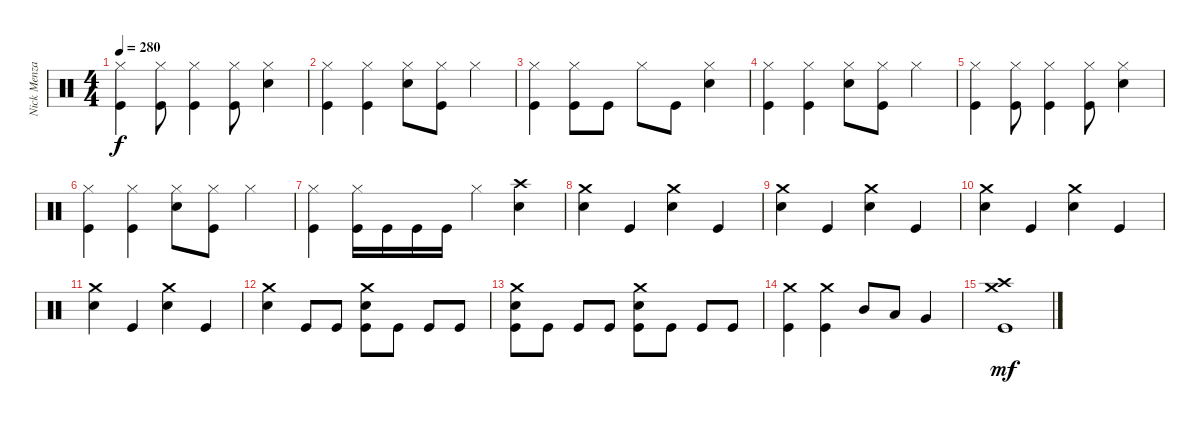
\track ("Nick Menza" "Nick Menza") {instrument percussion}
\staff {score}
\articulation defaults
\ts (4 4)
\tempo 280
\clef neutral
\ks c
("Hi-Hat (closed)" "Kick (hit)").4{dy f} ("Hi-Hat (closed)" "Kick (hit)").8 ("Hi-Hat (closed)" "Kick (hit)").4 ("Hi-Hat (closed)" "Kick (hit)").8 ("Hi-Hat (closed)" "Snare (hit) 2").4 |
("Hi-Hat (closed)" "Kick (hit)").4 ("Hi-Hat (closed)" "Kick (hit)").4 ("Hi-Hat (closed)" "Snare (hit) 2").8 ("Hi-Hat (closed)" "Kick (hit)").8 "Hi-Hat (closed)".4 |
("Hi-Hat (closed)" "Kick (hit)").4 ("Hi-Hat (closed)" "Kick (hit)").8 "Kick (hit)".8 "Hi-Hat (closed)".8 "Kick (hit)".8 ("Hi-Hat (closed)" "Snare (hit) 2").4 |
("Hi-Hat (closed)" "Kick (hit)").4 ("Hi-Hat (closed)" "Kick (hit)").4 ("Hi-Hat (closed)" "Snare (hit) 2").8 ("Hi-Hat (closed)" "Kick (hit)").8 "Hi-Hat (closed)".4 |
("Hi-Hat (closed)" "Kick (hit)").4 ("Hi-Hat (closed)" "Kick (hit)").8 ("Hi-Hat (closed)" "Kick (hit)").4 ("Hi-Hat (closed)" "Kick (hit)").8 ("Hi-Hat (closed)" "Snare (hit) 2").4 |
("Hi-Hat (closed)" "Kick (hit)").4 ("Hi-Hat (closed)" "Kick (hit)").4 ("Hi-Hat (closed)" "Snare (hit) 2").8 ("Hi-Hat (closed)" "Kick (hit)").8 "Hi-Hat (closed)".4 |
("Hi-Hat (closed)" "Kick (hit)").4 ("Hi-Hat (closed)" "Kick (hit)").16 "Kick (hit)".16 "Kick (hit)".16 "Kick (hit)".16 "Hi-Hat (closed)".4 ("Crash high (hit)" "Snare (hit) 2").4 |
("Crash medium (hit)" "Snare (hit) 2").4 "Kick (hit)".4 ("Crash medium (hit)" "Snare (hit) 2").4 "Kick (hit)".4 |
("Crash medium (hit)" "Snare (hit) 2").4 "Kick (hit)".4 ("Crash medium (hit)" "Snare (hit) 2").4 "Kick (hit)".4 |
("Crash medium (hit)" "Snare (hit) 2").4 "Kick (hit)".4 ("Crash medium (hit)" "Snare (hit) 2").4 "Kick (hit)".4 |
("Crash medium (hit)" "Snare (hit) 2").4 "Kick (hit)".4 ("Crash medium (hit)" "Snare (hit) 2").4 "Kick (hit)".4 |
("Crash medium (hit)" "Snare (hit) 2").4 "Kick (hit)".8 "Kick (hit)".8 ("Crash medium (hit)" "Snare (hit) 2" "Kick (hit)").8 "Kick (hit)".8 "Kick (hit)".8 "Kick (hit)".8 |
("Crash medium (hit)" "Snare (hit) 2" "Kick (hit)").8 "Kick (hit)".8 "Kick (hit)".8 "Kick (hit)".8 ("Crash medium (hit)" "Snare (hit) 2" "Kick (hit)").8 "Kick (hit)".8 "Kick (hit)".8 "Kick (hit)".8 |
("Crash medium (hit)" "Kick (hit)").4 ("Crash medium (hit)" "Kick (hit)").4 "Mid Tom (hit)".8 "Low Tom (hit)".8 "Very Low Tom (hit)".4 |
("Crash high (hit)" "Crash medium (hit)" "Kick (hit)").1{dy mf}
